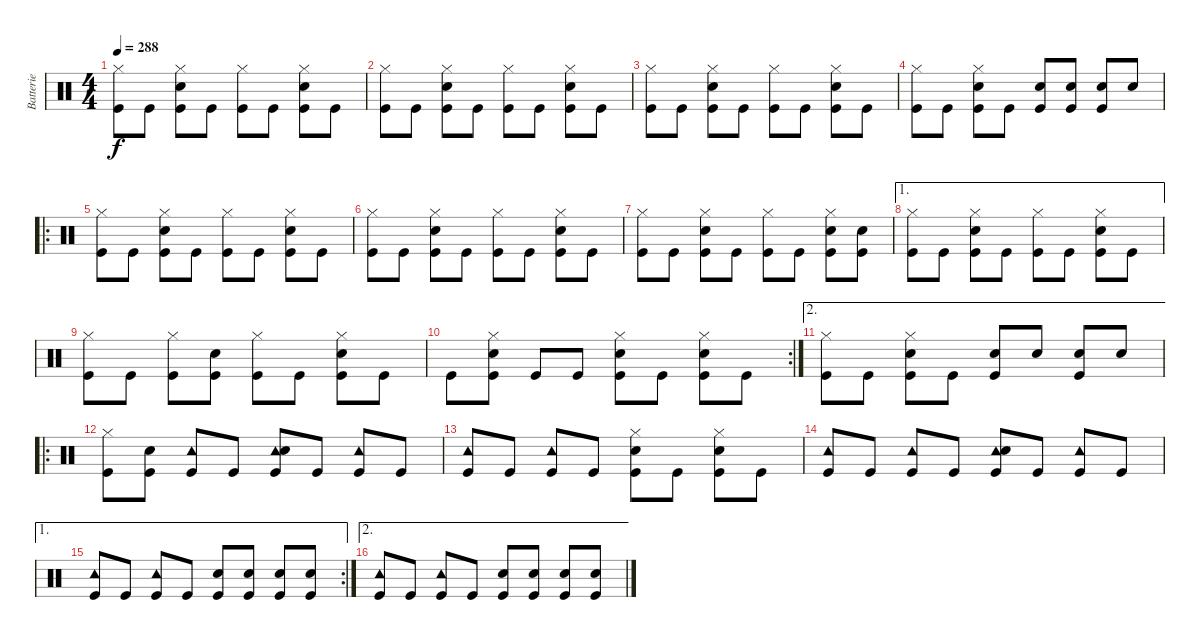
\track ("Batterie" "Batterie") {instrument percussion}
\staff {score}
\articulation defaults
\ts (4 4)
\tempo 288
\clef neutral
\ks c
("Hi-Hat (closed)" "Kick (hit)").8{dy f} "Kick (hit)".8 ("Hi-Hat (closed)" "Snare (hit) 2" "Kick (hit)").8 "Kick (hit)".8 ("Hi-Hat (closed)" "Kick (hit)").8 "Kick (hit)".8 ("Hi-Hat (closed)" "Snare (hit) 2" "Kick (hit)").8 "Kick (hit)".8 |
("Hi-Hat (closed)" "Kick (hit)").8 "Kick (hit)".8 ("Hi-Hat (closed)" "Snare (hit) 2" "Kick (hit)").8 "Kick (hit)".8 ("Hi-Hat (closed)" "Kick (hit)").8 "Kick (hit)".8 ("Hi-Hat (closed)" "Snare (hit) 2" "Kick (hit)").8 "Kick (hit)".8 |
("Hi-Hat (closed)" "Kick (hit)").8 "Kick (hit)".8 ("Hi-Hat (closed)" "Snare (hit) 2" "Kick (hit)").8 "Kick (hit)".8 ("Hi-Hat (closed)" "Kick (hit)").8 "Kick (hit)".8 ("Hi-Hat (closed)" "Snare (hit) 2" "Kick (hit)").8 "Kick (hit)".8 |
("Hi-Hat (closed)" "Kick (hit)").8 "Kick (hit)".8 ("Hi-Hat (closed)" "Snare (hit) 2" "Kick (hit)").8 "Kick (hit)".8 ("Snare (hit) 2" "Kick (hit)").8 ("Snare (hit) 2" "Kick (hit)").8 ("Snare (hit) 2" "Kick (hit)").8 "Snare (hit) 2".8 |
\ro
("Hi-Hat (closed)" "Kick (hit)").8 "Kick (hit)".8 ("Hi-Hat (closed)" "Snare (hit) 2" "Kick (hit)").8 "Kick (hit)".8 ("Hi-Hat (closed)" "Kick (hit)").8 "Kick (hit)".8 ("Hi-Hat (closed)" "Snare (hit) 2" "Kick (hit)").8 "Kick (hit)".8 |
("Hi-Hat (closed)" "Kick (hit)").8 "Kick (hit)".8 ("Hi-Hat (closed)" "Snare (hit) 2" "Kick (hit)").8 "Kick (hit)".8 ("Hi-Hat (closed)" "Kick (hit)").8 "Kick (hit)".8 ("Hi-Hat (closed)" "Snare (hit) 2" "Kick (hit)").8 "Kick (hit)".8 |
("Hi-Hat (closed)" "Kick (hit)").8 "Kick (hit)".8 ("Hi-Hat (closed)" "Snare (hit) 2" "Kick (hit)").8 "Kick (hit)".8 ("Hi-Hat (closed)" "Kick (hit)").8 "Kick (hit)".8 ("Hi-Hat (closed)" "Snare (hit) 2" "Kick (hit)").8 ("Snare (hit) 2" "Kick (hit)").8 |
\ae 1
("Hi-Hat (closed)" "Kick (hit)").8 "Kick (hit)".8 ("Hi-Hat (closed)" "Snare (hit) 2" "Kick (hit)").8 "Kick (hit)".8 ("Hi-Hat (closed)" "Kick (hit)").8 "Kick (hit)".8 ("Hi-Hat (closed)" "Snare (hit) 2" "Kick (hit)").8 "Kick (hit)".8 |
("Hi-Hat (closed)" "Kick (hit)").8 "Kick (hit)".8 ("Hi-Hat (closed)" "Kick (hit)").8 ("Snare (hit) 2" "Kick (hit)").8 ("Hi-Hat (closed)" "Kick (hit)").8 "Kick (hit)".8 ("Hi-Hat (closed)" "Snare (hit) 2" "Kick (hit)").8 "Kick (hit)".8 |
\rc 2 "Kick (hit)".8
("Hi-Hat (closed)" "Snare (hit) 2" "Kick (hit)").8 "Kick (hit)".8 "Kick (hit)".8 ("Hi-Hat (closed)" "Snare (hit) 2" "Kick (hit)").8 "Kick (hit)".8 ("Hi-Hat (closed)" "Snare (hit) 2" "Kick (hit)").8 "Kick (hit)".8 |
\ae 2
("Hi-Hat (closed)" "Kick (hit)").8 "Kick (hit)".8 ("Hi-Hat (closed)" "Snare (hit) 2" "Kick (hit)").8 "Kick (hit)".8 ("Snare (hit) 2" "Kick (hit)").8 "Snare (hit) 2".8 ("Snare (hit) 2" "Kick (hit)").8 "Snare (hit) 2".8 |
\ro
("Hi-Hat (closed)" "Kick (hit)").8 ("Snare (hit) 2" "Kick (hit)").8 ("Tambourine (hit)" "Kick (hit)").8 "Kick (hit)".8 ("Tambourine (hit)" "Snare (hit) 2" "Kick (hit)").8 "Kick (hit)".8 ("Tambourine (hit)" "Kick (hit)").8 "Kick (hit)".8 |
("Tambourine (hit)" "Kick (hit)").8 "Kick (hit)".8 ("Tambourine (hit)" "Kick (hit)").8 "Kick (hit)".8 ("Hi-Hat (closed)" "Snare (hit) 2" "Kick (hit)").8 "Kick (hit)".8 ("Hi-Hat (closed)" "Snare (hit) 2" "Kick (hit)").8 "Kick (hit)".8 |
("Tambourine (hit)" "Kick (hit)").8 "Kick (hit)".8 ("Tambourine (hit)" "Kick (hit)").8 "Kick (hit)".8 ("Tambourine (hit)" "Snare (hit) 2" "Kick (hit)").8 "Kick (hit)".8 ("Tambourine (hit)" "Kick (hit)").8 "Kick (hit)".8 |
\ae 1
\rc 2
("Tambourine (hit)" "Kick (hit)").8 "Kick (hit)".8 ("Tambourine (hit)" "Kick (hit)").8 "Kick (hit)".8 ("Snare (hit) 2" "Kick (hit)").8 ("Snare (hit) 2" "Kick (hit)").8 ("Snare (hit) 2" "Kick (hit)").8 ("Snare (hit) 2" "Kick (hit)").8 |
\ae 2
("Tambourine (hit)" "Kick (hit)").8 "Kick (hit)".8 ("Tambourine (hit)" "Kick (hit)").8 "Kick (hit)".8 ("Snare (hit) 2" "Kick (hit)").8 ("Snare (hit) 2" "Kick (hit)").8 ("Snare (hit) 2" "Kick (hit)").8 ("Snare (hit) 2" "Kick (hit)").8
